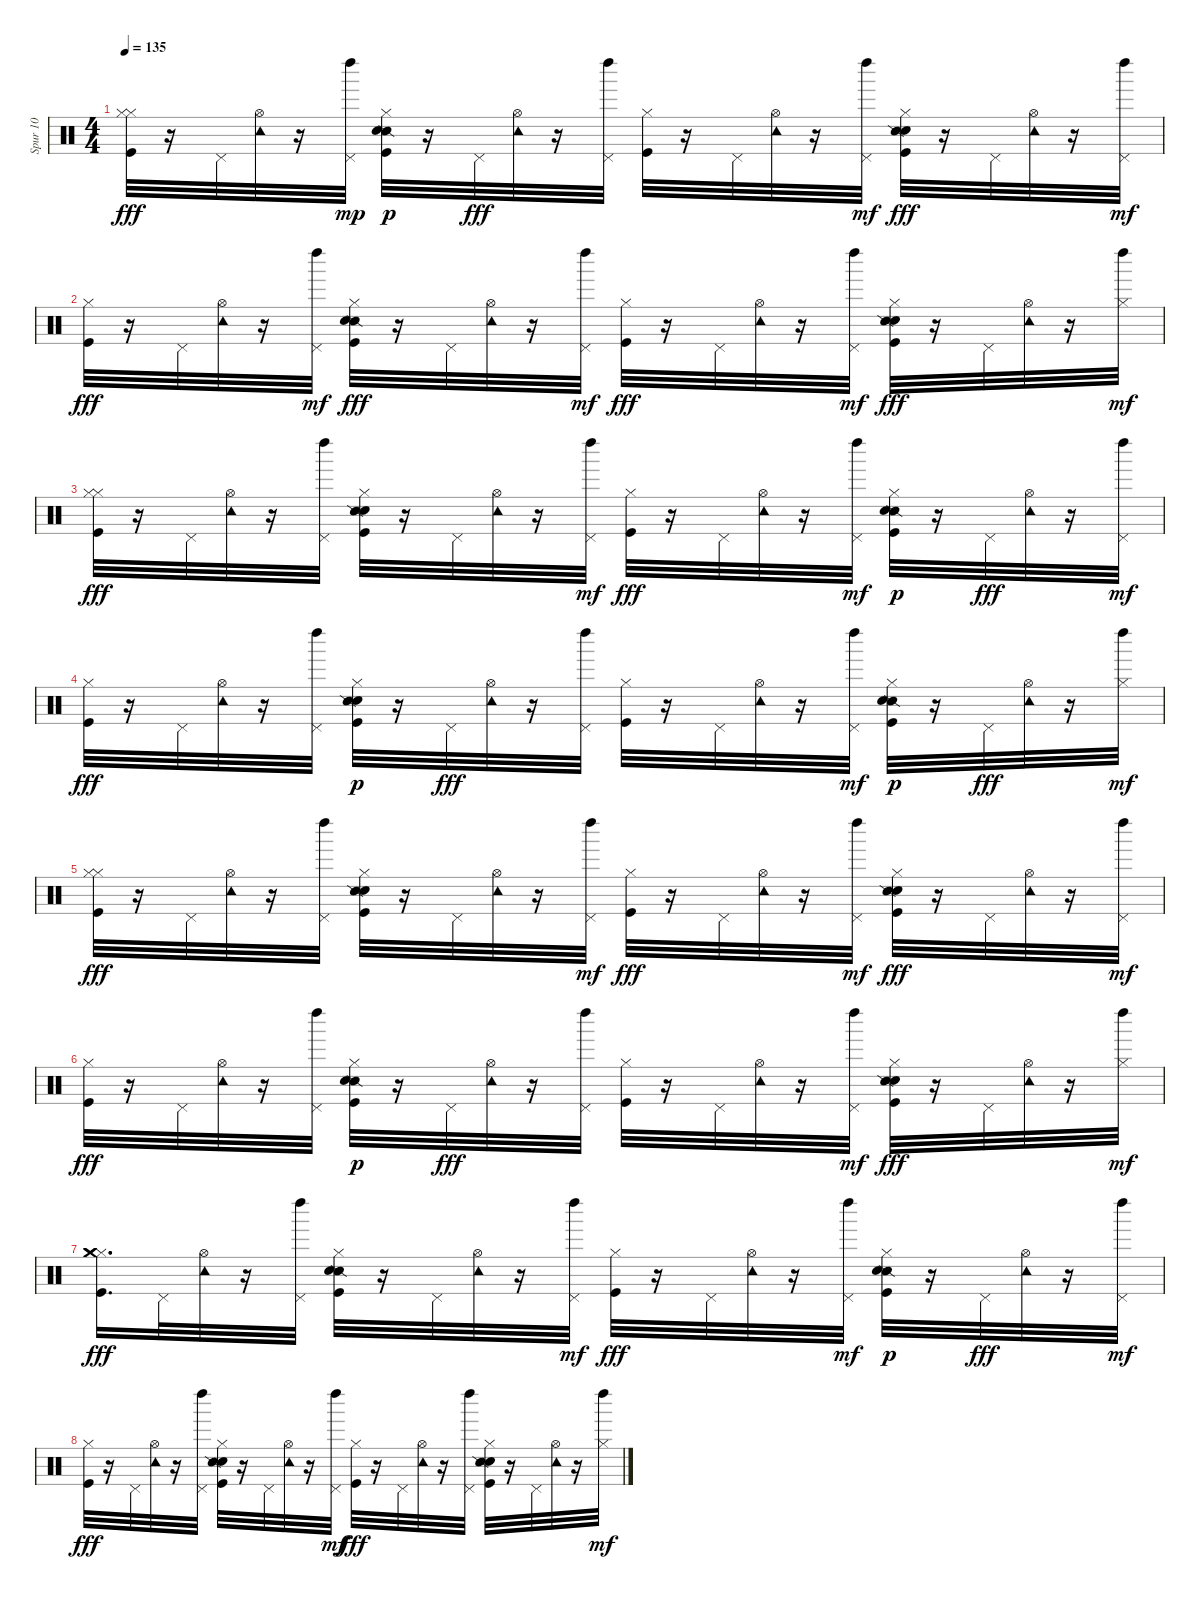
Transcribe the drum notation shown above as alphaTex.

\track ("Spur 10" "Spur 10") {instrument percussion}
\staff {score}
\articulation defaults
\ts (4 4)
\tempo 135
\clef neutral
\ks c
("Kick (hit)" "Hi-Hat (closed)" "Hi-Hat (closed)").32{dy fff} r.16 "Pedal Hi-Hat (hit)".32 ("Hi-Hat (open)" "Tambourine (hit)").32 r.16 ("Pedal Hi-Hat (hit)" "Left Maraca (hit)").32{dy mp} ("Hi-Hat (closed)" "Kick (hit)" "Snare (side stick) 2" "Hand Clap (hit)").32{dy p} r.16 "Pedal Hi-Hat (hit)".32{dy fff} ("Tambourine (hit)" "Hi-Hat (open)").32 r.16 ("Left Maraca (hit)" "Pedal Hi-Hat (hit)").32 ("Hi-Hat (closed)" "Kick (hit)").32 r.16 "Pedal Hi-Hat (hit)".32 ("Tambourine (hit)" "Hi-Hat (open)").32 r.16 ("Left Maraca (hit)" "Pedal Hi-Hat (hit)").32{dy mf} ("Hand Clap (hit)" "Kick (hit)" "Snare (side stick) 2" "Hi-Hat (closed)").32{dy fff} r.16 "Pedal Hi-Hat (hit)".32 ("Hi-Hat (open)" "Tambourine (hit)").32 r.16 ("Left Maraca (hit)" "Pedal Hi-Hat (hit)").32{dy mf} |
("Kick (hit)" "Hi-Hat (closed)").32{dy fff} r.16 "Pedal Hi-Hat (hit)".32 ("Tambourine (hit)" "Hi-Hat (open)").32 r.16 ("Pedal Hi-Hat (hit)" "Left Maraca (hit)").32{dy mf} ("Snare (side stick) 2" "Hi-Hat (closed)" "Hand Clap (hit)" "Kick (hit)").32{dy fff} r.16 "Pedal Hi-Hat (hit)".32 ("Tambourine (hit)" "Hi-Hat (open)").32 r.16 ("Pedal Hi-Hat (hit)" "Left Maraca (hit)").32{dy mf} ("Hi-Hat (closed)" "Kick (hit)").32{dy fff} r.16 "Pedal Hi-Hat (hit)".32 ("Hi-Hat (open)" "Tambourine (hit)").32 r.16 ("Pedal Hi-Hat (hit)" "Left Maraca (hit)").32{dy mf} ("Hand Clap (hit)" "Snare (side stick) 2" "Hi-Hat (closed)" "Kick (hit)").32{dy fff} r.16 "Pedal Hi-Hat (hit)".32 ("Hi-Hat (open)" "Tambourine (hit)").32 r.16 ("Left Maraca (hit)" "Hi-Hat (closed)").32{dy mf} |
("Hi-Hat (closed)" "Kick (hit)" "Hi-Hat (closed)").32{dy fff} r.16 "Pedal Hi-Hat (hit)".32 ("Tambourine (hit)" "Hi-Hat (open)").32 r.16 ("Left Maraca (hit)" "Pedal Hi-Hat (hit)").32 ("Hand Clap (hit)" "Kick (hit)" "Snare (side stick) 2" "Hi-Hat (closed)").32 r.16 "Pedal Hi-Hat (hit)".32 ("Tambourine (hit)" "Hi-Hat (open)").32 r.16 ("Pedal Hi-Hat (hit)" "Left Maraca (hit)").32{dy mf} ("Hi-Hat (closed)" "Kick (hit)").32{dy fff} r.16 "Pedal Hi-Hat (hit)".32 ("Tambourine (hit)" "Hi-Hat (open)").32 r.16 ("Left Maraca (hit)" "Pedal Hi-Hat (hit)").32{dy mf} ("Kick (hit)" "Snare (side stick) 2" "Hi-Hat (closed)" "Hand Clap (hit)").32{dy p} r.16 "Pedal Hi-Hat (hit)".32{dy fff} ("Tambourine (hit)" "Hi-Hat (open)").32 r.16 ("Left Maraca (hit)" "Pedal Hi-Hat (hit)").32{dy mf} |
("Hi-Hat (closed)" "Kick (hit)").32{dy fff} r.16 "Pedal Hi-Hat (hit)".32 ("Hi-Hat (open)" "Tambourine (hit)").32 r.16 ("Left Maraca (hit)" "Pedal Hi-Hat (hit)").32 ("Kick (hit)" "Hi-Hat (closed)" "Hand Clap (hit)" "Snare (side stick) 2").32{dy p} r.16 "Pedal Hi-Hat (hit)".32{dy fff} ("Hi-Hat (open)" "Tambourine (hit)").32 r.16 ("Left Maraca (hit)" "Pedal Hi-Hat (hit)").32 ("Kick (hit)" "Hi-Hat (closed)").32 r.16 "Pedal Hi-Hat (hit)".32 ("Hi-Hat (open)" "Tambourine (hit)").32 r.16 ("Pedal Hi-Hat (hit)" "Left Maraca (hit)").32{dy mf} ("Hi-Hat (closed)" "Snare (side stick) 2" "Kick (hit)" "Hand Clap (hit)").32{dy p} r.16 "Pedal Hi-Hat (hit)".32{dy fff} ("Hi-Hat (open)" "Tambourine (hit)").32 r.16 ("Hi-Hat (closed)" "Left Maraca (hit)").32{dy mf} |
("Hi-Hat (closed)" "Kick (hit)" "Hi-Hat (closed)").32{dy fff} r.16 "Pedal Hi-Hat (hit)".32 ("Hi-Hat (open)" "Tambourine (hit)").32 r.16 ("Left Maraca (hit)" "Pedal Hi-Hat (hit)").32 ("Kick (hit)" "Hand Clap (hit)" "Snare (side stick) 2" "Hi-Hat (closed)").32 r.16 "Pedal Hi-Hat (hit)".32 ("Tambourine (hit)" "Hi-Hat (open)").32 r.16 ("Pedal Hi-Hat (hit)" "Left Maraca (hit)").32{dy mf} ("Hi-Hat (closed)" "Kick (hit)").32{dy fff} r.16 "Pedal Hi-Hat (hit)".32 ("Hi-Hat (open)" "Tambourine (hit)").32 r.16 ("Left Maraca (hit)" "Pedal Hi-Hat (hit)").32{dy mf} ("Hand Clap (hit)" "Hi-Hat (closed)" "Snare (side stick) 2" "Kick (hit)").32{dy fff} r.16 "Pedal Hi-Hat (hit)".32 ("Hi-Hat (open)" "Tambourine (hit)").32 r.16 ("Pedal Hi-Hat (hit)" "Left Maraca (hit)").32{dy mf} |
("Kick (hit)" "Hi-Hat (closed)").32{dy fff} r.16 "Pedal Hi-Hat (hit)".32 ("Hi-Hat (open)" "Tambourine (hit)").32 r.16 ("Left Maraca (hit)" "Pedal Hi-Hat (hit)").32 ("Snare (side stick) 2" "Kick (hit)" "Hi-Hat (closed)" "Hand Clap (hit)").32{dy p} r.16 "Pedal Hi-Hat (hit)".32{dy fff} ("Hi-Hat (open)" "Tambourine (hit)").32 r.16 ("Left Maraca (hit)" "Pedal Hi-Hat (hit)").32 ("Kick (hit)" "Hi-Hat (closed)").32 r.16 "Pedal Hi-Hat (hit)".32 ("Hi-Hat (open)" "Tambourine (hit)").32 r.16 ("Pedal Hi-Hat (hit)" "Left Maraca (hit)").32{dy mf} ("Hi-Hat (closed)" "Hand Clap (hit)" "Kick (hit)" "Snare (side stick) 2").32{dy fff} r.16 "Pedal Hi-Hat (hit)".32 ("Tambourine (hit)" "Hi-Hat (open)").32 r.16 ("Hi-Hat (closed)" "Left Maraca (hit)").32{dy mf} |
("Hi-Hat (closed)" "Crash medium (hit)" "Kick (hit)" "Crash medium (hit)").16{d dy fff} "Pedal Hi-Hat (hit)".32 ("Hi-Hat (open)" "Tambourine (hit)").32 r.16 ("Left Maraca (hit)" "Pedal Hi-Hat (hit)").32 ("Kick (hit)" "Snare (side stick) 2" "Hand Clap (hit)" "Hi-Hat (closed)").32 r.16 "Pedal Hi-Hat (hit)".32 ("Hi-Hat (open)" "Tambourine (hit)").32 r.16 ("Pedal Hi-Hat (hit)" "Left Maraca (hit)").32{dy mf} ("Kick (hit)" "Hi-Hat (closed)").32{dy fff} r.16 "Pedal Hi-Hat (hit)".32 ("Hi-Hat (open)" "Tambourine (hit)").32 r.16 ("Left Maraca (hit)" "Pedal Hi-Hat (hit)").32{dy mf} ("Hi-Hat (closed)" "Snare (side stick) 2" "Kick (hit)" "Hand Clap (hit)").32{dy p} r.16 "Pedal Hi-Hat (hit)".32{dy fff} ("Tambourine (hit)" "Hi-Hat (open)").32 r.16 ("Left Maraca (hit)" "Pedal Hi-Hat (hit)").32{dy mf} |
("Hi-Hat (closed)" "Kick (hit)").32{dy fff} r.16 "Pedal Hi-Hat (hit)".32 ("Tambourine (hit)" "Hi-Hat (open)").32 r.16 ("Left Maraca (hit)" "Pedal Hi-Hat (hit)").32 ("Hand Clap (hit)" "Snare (side stick) 2" "Kick (hit)" "Hi-Hat (closed)").32 r.16 "Pedal Hi-Hat (hit)".32 ("Hi-Hat (open)" "Tambourine (hit)").32 r.16 ("Pedal Hi-Hat (hit)" "Left Maraca (hit)").32{dy mf} ("Hi-Hat (closed)" "Kick (hit)").32{dy fff} r.16 "Pedal Hi-Hat (hit)".32 ("Tambourine (hit)" "Hi-Hat (open)").32 r.16 ("Left Maraca (hit)" "Pedal Hi-Hat (hit)").32 ("Hand Clap (hit)" "Hi-Hat (closed)" "Snare (side stick) 2" "Kick (hit)").32 r.16 "Pedal Hi-Hat (hit)".32 ("Hi-Hat (open)" "Tambourine (hit)").32 r.16 ("Hi-Hat (closed)" "Left Maraca (hit)").32{dy mf}
